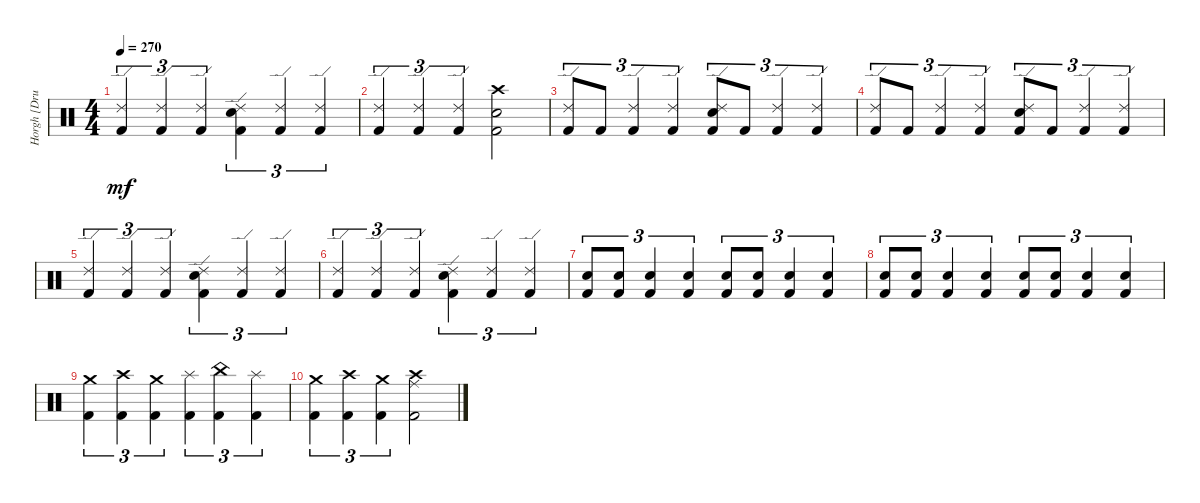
\track ("Horgh [Drums]" "Horgh [Dru") {instrument percussion}
\staff {score}
\articulation defaults
\ts (4 4)
\tempo 270
\clef neutral
\ks c
("Ride (edge) 2" "Kick (hit) 2").4{tu (3 2) dy mf} ("Ride (edge) 2" "Kick (hit) 2").4{tu (3 2)} ("Ride (edge) 2" "Kick (hit) 2").4{tu (3 2)} ("Ride (edge) 2" "Electric Snare (hit)" "Kick (hit) 2").4{tu (3 2)} ("Ride (edge) 2" "Kick (hit) 2").4{tu (3 2)} ("Ride (edge) 2" "Kick (hit) 2").4{tu (3 2)} |
("Ride (edge) 2" "Kick (hit) 2").4{tu (3 2)} ("Ride (edge) 2" "Kick (hit) 2").4{tu (3 2)} ("Ride (edge) 2" "Kick (hit) 2").4{tu (3 2)} ("Crash high (hit)" "Electric Snare (hit)" "Kick (hit) 2").2 |
("Ride (edge) 2" "Kick (hit) 2").8{tu (3 2)} "Kick (hit) 2".8{tu (3 2)} ("Ride (edge) 2" "Kick (hit) 2").4{tu (3 2)} ("Ride (edge) 2" "Kick (hit) 2").4{tu (3 2)} ("Ride (edge) 2" "Electric Snare (hit)" "Kick (hit) 2").8{tu (3 2)} "Kick (hit) 2".8{tu (3 2)} ("Ride (edge) 2" "Kick (hit) 2").4{tu (3 2)} ("Ride (edge) 2" "Kick (hit) 2").4{tu (3 2)} |
("Ride (edge) 2" "Kick (hit) 2").8{tu (3 2)} "Kick (hit) 2".8{tu (3 2)} ("Ride (edge) 2" "Kick (hit) 2").4{tu (3 2)} ("Ride (edge) 2" "Kick (hit) 2").4{tu (3 2)} ("Ride (edge) 2" "Electric Snare (hit)" "Kick (hit) 2").8{tu (3 2)} "Kick (hit) 2".8{tu (3 2)} ("Ride (edge) 2" "Kick (hit) 2").4{tu (3 2)} ("Ride (edge) 2" "Kick (hit) 2").4{tu (3 2)} |
("Ride (edge) 2" "Kick (hit) 2").4{tu (3 2)} ("Ride (edge) 2" "Kick (hit) 2").4{tu (3 2)} ("Ride (edge) 2" "Kick (hit) 2").4{tu (3 2)} ("Ride (edge) 2" "Electric Snare (hit)" "Kick (hit) 2").4{tu (3 2)} ("Ride (edge) 2" "Kick (hit) 2").4{tu (3 2)} ("Ride (edge) 2" "Kick (hit) 2").4{tu (3 2)} |
("Ride (edge) 2" "Kick (hit) 2").4{tu (3 2)} ("Ride (edge) 2" "Kick (hit) 2").4{tu (3 2)} ("Ride (edge) 2" "Kick (hit) 2").4{tu (3 2)} ("Ride (edge) 2" "Electric Snare (hit)" "Kick (hit) 2").4{tu (3 2)} ("Ride (edge) 2" "Kick (hit) 2").4{tu (3 2)} ("Ride (edge) 2" "Kick (hit) 2").4{tu (3 2)} |
("Electric Snare (hit)" "Kick (hit) 2").8{tu (3 2)} ("Electric Snare (hit)" "Kick (hit) 2").8{tu (3 2)} ("Electric Snare (hit)" "Kick (hit) 2").4{tu (3 2)} ("Electric Snare (hit)" "Kick (hit) 2").4{tu (3 2)} ("Electric Snare (hit)" "Kick (hit) 2").8{tu (3 2)} ("Electric Snare (hit)" "Kick (hit) 2").8{tu (3 2)} ("Electric Snare (hit)" "Kick (hit) 2").4{tu (3 2)} ("Electric Snare (hit)" "Kick (hit) 2").4{tu (3 2)} |
("Electric Snare (hit)" "Kick (hit) 2").8{tu (3 2)} ("Electric Snare (hit)" "Kick (hit) 2").8{tu (3 2)} ("Electric Snare (hit)" "Kick (hit) 2").4{tu (3 2)} ("Electric Snare (hit)" "Kick (hit) 2").4{tu (3 2)} ("Electric Snare (hit)" "Kick (hit) 2").8{tu (3 2)} ("Electric Snare (hit)" "Kick (hit) 2").8{tu (3 2)} ("Electric Snare (hit)" "Kick (hit) 2").4{tu (3 2)} ("Electric Snare (hit)" "Kick (hit) 2").4{tu (3 2)} |
("Crash medium (hit)" "Kick (hit) 2").4{tu (3 2)} ("Crash high (hit)" "Kick (hit) 2").4{tu (3 2)} ("Crash medium (hit)" "Kick (hit) 2").4{tu (3 2)} ("Splash (hit)" "Kick (hit) 2").4{tu (3 2)} ("China (hit)" "Kick (hit) 2").4{tu (3 2)} ("Splash (hit)" "Kick (hit) 2").4{tu (3 2)} |
("Crash medium (hit)" "Kick (hit) 2").4{tu (3 2)} ("Crash high (hit)" "Kick (hit) 2").4{tu (3 2)} ("Crash medium (hit)" "Kick (hit) 2").4{tu (3 2)} ("Crash high (hit)" "Ride (middle)" "Kick (hit) 2").2
